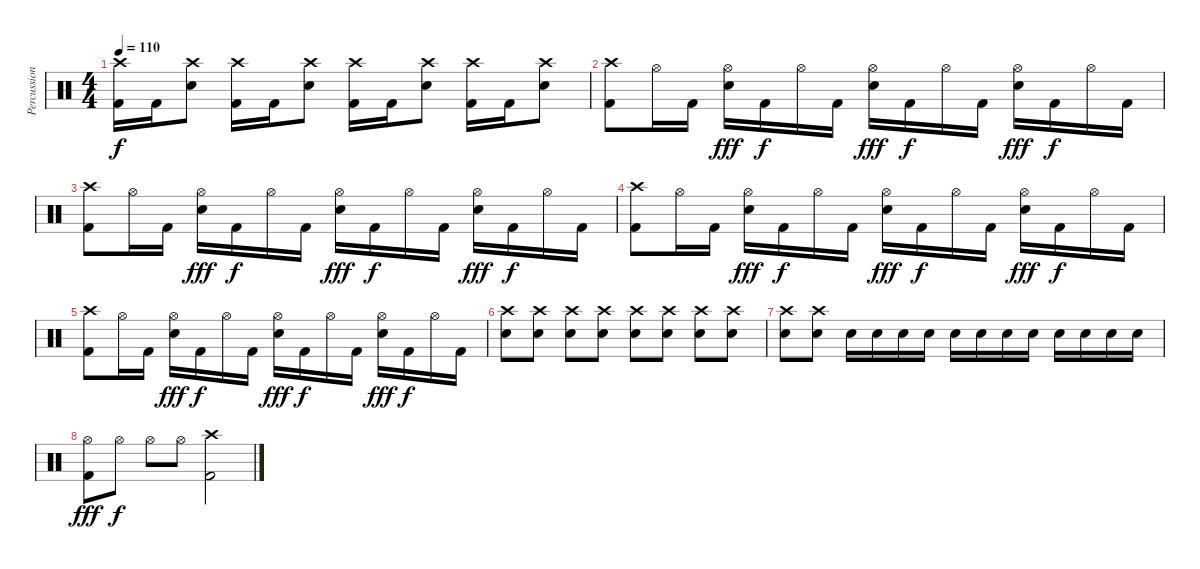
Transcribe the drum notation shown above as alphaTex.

\track ("Percussions" "Percussion") {instrument percussion}
\staff {score}
\articulation defaults
\ts (4 4)
\tempo 110
\clef neutral
\ks c
("Crash high (hit)" "Kick (hit) 2").16{dy f} "Kick (hit) 2".16 ("Crash high (hit)" "Snare (hit) 2").8 ("Crash high (hit)" "Kick (hit) 2").16 "Kick (hit) 2".16 ("Crash high (hit)" "Snare (hit) 2").8 ("Crash high (hit)" "Kick (hit) 2").16 "Kick (hit) 2".16 ("Crash high (hit)" "Snare (hit) 2").8 ("Crash high (hit)" "Kick (hit) 2").16 "Kick (hit) 2".16 ("Crash high (hit)" "Snare (hit) 2").8 |
("Crash high (hit)" "Kick (hit) 2").8 "Hi-Hat (open)".16 "Kick (hit) 2".16 ("Hi-Hat (open)" "Snare (hit) 2").16{dy fff} "Kick (hit) 2".16{dy f} "Hi-Hat (open)".16 "Kick (hit) 2".16 ("Hi-Hat (open)" "Snare (hit) 2").16{dy fff} "Kick (hit) 2".16{dy f} "Hi-Hat (open)".16 "Kick (hit) 2".16 ("Hi-Hat (open)" "Snare (hit) 2").16{dy fff} "Kick (hit) 2".16{dy f} "Hi-Hat (open)".16 "Kick (hit) 2".16 |
("Crash high (hit)" "Kick (hit) 2").8 "Hi-Hat (open)".16 "Kick (hit) 2".16 ("Hi-Hat (open)" "Snare (hit) 2").16{dy fff} "Kick (hit) 2".16{dy f} "Hi-Hat (open)".16 "Kick (hit) 2".16 ("Hi-Hat (open)" "Snare (hit) 2").16{dy fff} "Kick (hit) 2".16{dy f} "Hi-Hat (open)".16 "Kick (hit) 2".16 ("Hi-Hat (open)" "Snare (hit) 2").16{dy fff} "Kick (hit) 2".16{dy f} "Hi-Hat (open)".16 "Kick (hit) 2".16 |
("Crash high (hit)" "Kick (hit) 2").8 "Hi-Hat (open)".16 "Kick (hit) 2".16 ("Hi-Hat (open)" "Snare (hit) 2").16{dy fff} "Kick (hit) 2".16{dy f} "Hi-Hat (open)".16 "Kick (hit) 2".16 ("Hi-Hat (open)" "Snare (hit) 2").16{dy fff} "Kick (hit) 2".16{dy f} "Hi-Hat (open)".16 "Kick (hit) 2".16 ("Hi-Hat (open)" "Snare (hit) 2").16{dy fff} "Kick (hit) 2".16{dy f} "Hi-Hat (open)".16 "Kick (hit) 2".16 |
("Crash high (hit)" "Kick (hit) 2").8 "Hi-Hat (open)".16 "Kick (hit) 2".16 ("Hi-Hat (open)" "Snare (hit) 2").16{dy fff} "Kick (hit) 2".16{dy f} "Hi-Hat (open)".16 "Kick (hit) 2".16 ("Hi-Hat (open)" "Snare (hit) 2").16{dy fff} "Kick (hit) 2".16{dy f} "Hi-Hat (open)".16 "Kick (hit) 2".16 ("Hi-Hat (open)" "Snare (hit) 2").16{dy fff} "Kick (hit) 2".16{dy f} "Hi-Hat (open)".16 "Kick (hit) 2".16 |
("Crash high (hit)" "Snare (hit) 2").8 ("Crash high (hit)" "Snare (hit) 2").8 ("Crash high (hit)" "Snare (hit) 2").8 ("Crash high (hit)" "Snare (hit) 2").8 ("Crash high (hit)" "Snare (hit) 2").8 ("Crash high (hit)" "Snare (hit) 2").8 ("Crash high (hit)" "Snare (hit) 2").8 ("Crash high (hit)" "Snare (hit) 2").8 |
("Crash high (hit)" "Snare (hit) 2").8 ("Crash high (hit)" "Snare (hit) 2").8 "Snare (hit) 2".16 "Snare (hit) 2".16 "Snare (hit) 2".16 "Snare (hit) 2".16 "Snare (hit) 2".16 "Snare (hit) 2".16 "Snare (hit) 2".16 "Snare (hit) 2".16 "Snare (hit) 2".16 "Snare (hit) 2".16 "Snare (hit) 2".16 "Snare (hit) 2".16 |
("Hi-Hat (open)" "Kick (hit) 2").8{dy fff} "Hi-Hat (open)".8{dy f} "Hi-Hat (open)".8 "Hi-Hat (open)".8 ("Crash high (hit)" "Kick (hit) 2").2
